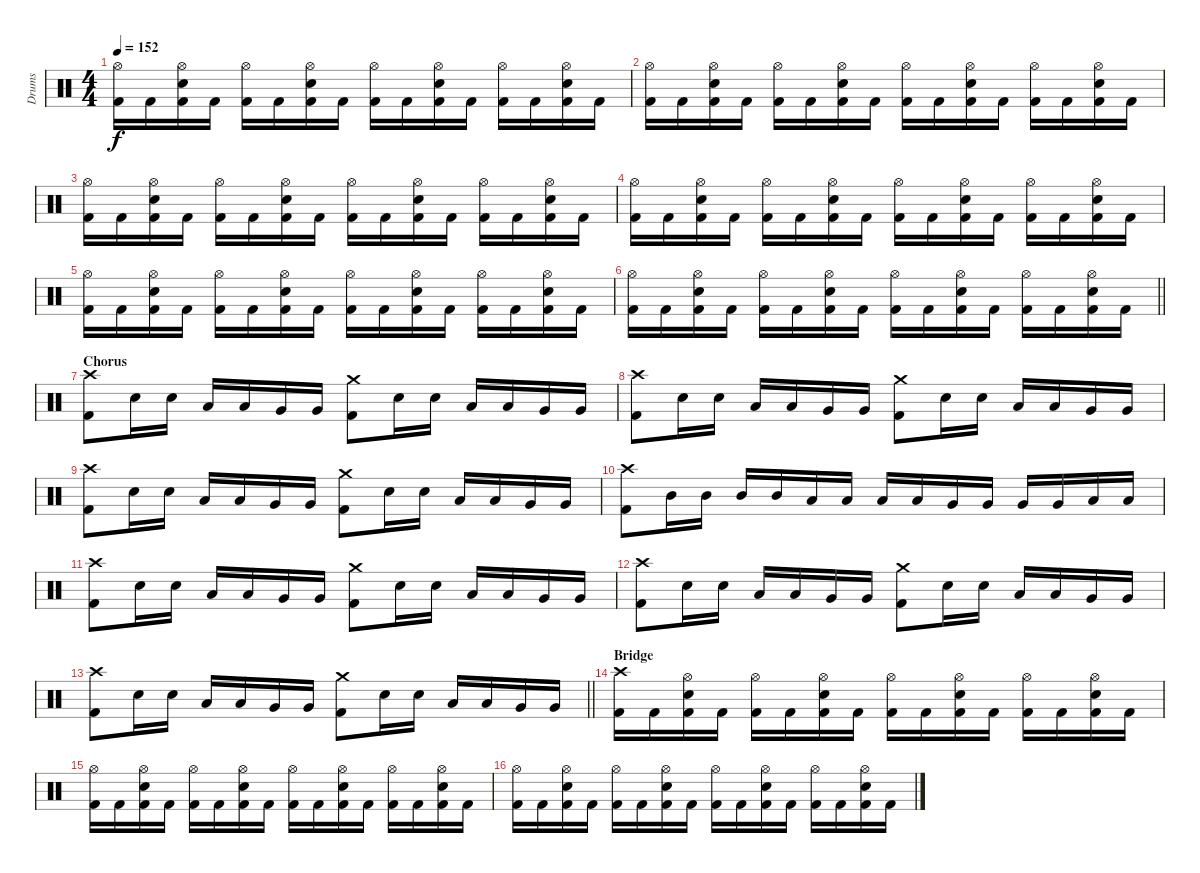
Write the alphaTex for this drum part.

\track ("Drums" "Drums") {instrument percussion}
\staff {score}
\articulation defaults
\ts (4 4)
\tempo 152
\clef neutral
\ks c
("Hi-Hat (open)" "Kick (hit) 2").16{dy f} "Kick (hit) 2".16 ("Hi-Hat (open)" "Snare (hit) 2" "Kick (hit) 2").16 "Kick (hit) 2".16 ("Hi-Hat (open)" "Kick (hit) 2").16 "Kick (hit) 2".16 ("Hi-Hat (open)" "Snare (hit) 2" "Kick (hit) 2").16 "Kick (hit) 2".16 ("Hi-Hat (open)" "Kick (hit) 2").16 "Kick (hit) 2".16 ("Hi-Hat (open)" "Snare (hit) 2" "Kick (hit) 2").16 "Kick (hit) 2".16 ("Hi-Hat (open)" "Kick (hit) 2").16 "Kick (hit) 2".16 ("Hi-Hat (open)" "Snare (hit) 2" "Kick (hit) 2").16 "Kick (hit) 2".16 |
("Hi-Hat (open)" "Kick (hit) 2").16 "Kick (hit) 2".16 ("Hi-Hat (open)" "Snare (hit) 2" "Kick (hit) 2").16 "Kick (hit) 2".16 ("Hi-Hat (open)" "Kick (hit) 2").16 "Kick (hit) 2".16 ("Hi-Hat (open)" "Snare (hit) 2" "Kick (hit) 2").16 "Kick (hit) 2".16 ("Hi-Hat (open)" "Kick (hit) 2").16 "Kick (hit) 2".16 ("Hi-Hat (open)" "Snare (hit) 2" "Kick (hit) 2").16 "Kick (hit) 2".16 ("Hi-Hat (open)" "Kick (hit) 2").16 "Kick (hit) 2".16 ("Hi-Hat (open)" "Snare (hit) 2" "Kick (hit) 2").16 "Kick (hit) 2".16 |
("Hi-Hat (open)" "Kick (hit) 2").16 "Kick (hit) 2".16 ("Hi-Hat (open)" "Snare (hit) 2" "Kick (hit) 2").16 "Kick (hit) 2".16 ("Hi-Hat (open)" "Kick (hit) 2").16 "Kick (hit) 2".16 ("Hi-Hat (open)" "Snare (hit) 2" "Kick (hit) 2").16 "Kick (hit) 2".16 ("Hi-Hat (open)" "Kick (hit) 2").16 "Kick (hit) 2".16 ("Hi-Hat (open)" "Snare (hit) 2" "Kick (hit) 2").16 "Kick (hit) 2".16 ("Hi-Hat (open)" "Kick (hit) 2").16 "Kick (hit) 2".16 ("Hi-Hat (open)" "Snare (hit) 2" "Kick (hit) 2").16 "Kick (hit) 2".16 |
("Hi-Hat (open)" "Kick (hit) 2").16 "Kick (hit) 2".16 ("Hi-Hat (open)" "Snare (hit) 2" "Kick (hit) 2").16 "Kick (hit) 2".16 ("Hi-Hat (open)" "Kick (hit) 2").16 "Kick (hit) 2".16 ("Hi-Hat (open)" "Snare (hit) 2" "Kick (hit) 2").16 "Kick (hit) 2".16 ("Hi-Hat (open)" "Kick (hit) 2").16 "Kick (hit) 2".16 ("Hi-Hat (open)" "Snare (hit) 2" "Kick (hit) 2").16 "Kick (hit) 2".16 ("Hi-Hat (open)" "Kick (hit) 2").16 "Kick (hit) 2".16 ("Hi-Hat (open)" "Snare (hit) 2" "Kick (hit) 2").16 "Kick (hit) 2".16 |
("Hi-Hat (open)" "Kick (hit) 2").16 "Kick (hit) 2".16 ("Hi-Hat (open)" "Snare (hit) 2" "Kick (hit) 2").16 "Kick (hit) 2".16 ("Hi-Hat (open)" "Kick (hit) 2").16 "Kick (hit) 2".16 ("Hi-Hat (open)" "Snare (hit) 2" "Kick (hit) 2").16 "Kick (hit) 2".16 ("Hi-Hat (open)" "Kick (hit) 2").16 "Kick (hit) 2".16 ("Hi-Hat (open)" "Snare (hit) 2" "Kick (hit) 2").16 "Kick (hit) 2".16 ("Hi-Hat (open)" "Kick (hit) 2").16 "Kick (hit) 2".16 ("Hi-Hat (open)" "Snare (hit) 2" "Kick (hit) 2").16 "Kick (hit) 2".16 |
\barLineRight lightlight
("Hi-Hat (open)" "Kick (hit) 2").16 "Kick (hit) 2".16 ("Hi-Hat (open)" "Snare (hit) 2" "Kick (hit) 2").16 "Kick (hit) 2".16 ("Hi-Hat (open)" "Kick (hit) 2").16 "Kick (hit) 2".16 ("Hi-Hat (open)" "Snare (hit) 2" "Kick (hit) 2").16 "Kick (hit) 2".16 ("Hi-Hat (open)" "Kick (hit) 2").16 "Kick (hit) 2".16 ("Hi-Hat (open)" "Snare (hit) 2" "Kick (hit) 2").16 "Kick (hit) 2".16 ("Hi-Hat (open)" "Kick (hit) 2").16 "Kick (hit) 2".16 ("Hi-Hat (open)" "Snare (hit) 2" "Kick (hit) 2").16 "Kick (hit) 2".16 |
\section ("" "Chorus")
("Crash high (hit)" "Kick (hit) 2").8 "Snare (hit) 2".16 "Snare (hit) 2".16 "Low Tom (hit)".16 "Low Tom (hit)".16 "Very Low Tom (hit)".16 "Very Low Tom (hit)".16 ("Crash medium (hit)" "Kick (hit) 2").8 "Snare (hit) 2".16 "Snare (hit) 2".16 "Low Tom (hit)".16 "Low Tom (hit)".16 "Very Low Tom (hit)".16 "Very Low Tom (hit)".16 |
("Crash high (hit)" "Kick (hit) 2").8 "Snare (hit) 2".16 "Snare (hit) 2".16 "Low Tom (hit)".16 "Low Tom (hit)".16 "Very Low Tom (hit)".16 "Very Low Tom (hit)".16 ("Crash medium (hit)" "Kick (hit) 2").8 "Snare (hit) 2".16 "Snare (hit) 2".16 "Low Tom (hit)".16 "Low Tom (hit)".16 "Very Low Tom (hit)".16 "Very Low Tom (hit)".16 |
("Crash high (hit)" "Kick (hit) 2").8 "Snare (hit) 2".16 "Snare (hit) 2".16 "Low Tom (hit)".16 "Low Tom (hit)".16 "Very Low Tom (hit)".16 "Very Low Tom (hit)".16 ("Crash medium (hit)" "Kick (hit) 2").8 "Snare (hit) 2".16 "Snare (hit) 2".16 "Low Tom (hit)".16 "Low Tom (hit)".16 "Very Low Tom (hit)".16 "Very Low Tom (hit)".16 |
("Crash high (hit)" "Kick (hit) 2").8 "Mid Tom (hit)".16 "Mid Tom (hit)".16 "Mid Tom (hit)".16 "Mid Tom (hit)".16 "Low Tom (hit)".16 "Low Tom (hit)".16 "Low Tom (hit)".16 "Low Tom (hit)".16 "Very Low Tom (hit)".16 "Very Low Tom (hit)".16 "Very Low Tom (hit)".16 "Very Low Tom (hit)".16 "Low Floor Tom (hit)".16 "Low Floor Tom (hit)".16 |
("Crash high (hit)" "Kick (hit) 2").8 "Snare (hit) 2".16 "Snare (hit) 2".16 "Low Tom (hit)".16 "Low Tom (hit)".16 "Very Low Tom (hit)".16 "Very Low Tom (hit)".16 ("Crash medium (hit)" "Kick (hit) 2").8 "Snare (hit) 2".16 "Snare (hit) 2".16 "Low Tom (hit)".16 "Low Tom (hit)".16 "Very Low Tom (hit)".16 "Very Low Tom (hit)".16 |
("Crash high (hit)" "Kick (hit) 2").8 "Snare (hit) 2".16 "Snare (hit) 2".16 "Low Tom (hit)".16 "Low Tom (hit)".16 "Very Low Tom (hit)".16 "Very Low Tom (hit)".16 ("Crash medium (hit)" "Kick (hit) 2").8 "Snare (hit) 2".16 "Snare (hit) 2".16 "Low Tom (hit)".16 "Low Tom (hit)".16 "Very Low Tom (hit)".16 "Very Low Tom (hit)".16 |
\barLineRight lightlight
("Crash high (hit)" "Kick (hit) 2").8 "Snare (hit) 2".16 "Snare (hit) 2".16 "Low Tom (hit)".16 "Low Tom (hit)".16 "Very Low Tom (hit)".16 "Very Low Tom (hit)".16 ("Crash medium (hit)" "Kick (hit) 2").8 "Snare (hit) 2".16 "Snare (hit) 2".16 "Low Tom (hit)".16 "Low Tom (hit)".16 "Very Low Tom (hit)".16 "Very Low Tom (hit)".16 |
\section ("" "Bridge")
("Crash high (hit)" "Kick (hit) 2").16 "Kick (hit) 2".16 ("Hi-Hat (open)" "Snare (hit) 2" "Kick (hit) 2").16 "Kick (hit) 2".16 ("Hi-Hat (open)" "Kick (hit) 2").16 "Kick (hit) 2".16 ("Hi-Hat (open)" "Snare (hit) 2" "Kick (hit) 2").16 "Kick (hit) 2".16 ("Hi-Hat (open)" "Kick (hit) 2").16 "Kick (hit) 2".16 ("Hi-Hat (open)" "Snare (hit) 2" "Kick (hit) 2").16 "Kick (hit) 2".16 ("Hi-Hat (open)" "Kick (hit) 2").16 "Kick (hit) 2".16 ("Hi-Hat (open)" "Snare (hit) 2" "Kick (hit) 2").16 "Kick (hit) 2".16 |
("Hi-Hat (open)" "Kick (hit) 2").16 "Kick (hit) 2".16 ("Hi-Hat (open)" "Snare (hit) 2" "Kick (hit) 2").16 "Kick (hit) 2".16 ("Hi-Hat (open)" "Kick (hit) 2").16 "Kick (hit) 2".16 ("Hi-Hat (open)" "Snare (hit) 2" "Kick (hit) 2").16 "Kick (hit) 2".16 ("Hi-Hat (open)" "Kick (hit) 2").16 "Kick (hit) 2".16 ("Hi-Hat (open)" "Snare (hit) 2" "Kick (hit) 2").16 "Kick (hit) 2".16 ("Hi-Hat (open)" "Kick (hit) 2").16 "Kick (hit) 2".16 ("Hi-Hat (open)" "Snare (hit) 2" "Kick (hit) 2").16 "Kick (hit) 2".16 |
("Hi-Hat (open)" "Kick (hit) 2").16 "Kick (hit) 2".16 ("Hi-Hat (open)" "Snare (hit) 2" "Kick (hit) 2").16 "Kick (hit) 2".16 ("Hi-Hat (open)" "Kick (hit) 2").16 "Kick (hit) 2".16 ("Hi-Hat (open)" "Snare (hit) 2" "Kick (hit) 2").16 "Kick (hit) 2".16 ("Hi-Hat (open)" "Kick (hit) 2").16 "Kick (hit) 2".16 ("Hi-Hat (open)" "Snare (hit) 2" "Kick (hit) 2").16 "Kick (hit) 2".16 ("Hi-Hat (open)" "Kick (hit) 2").16 "Kick (hit) 2".16 ("Hi-Hat (open)" "Snare (hit) 2" "Kick (hit) 2").16 "Kick (hit) 2".16
